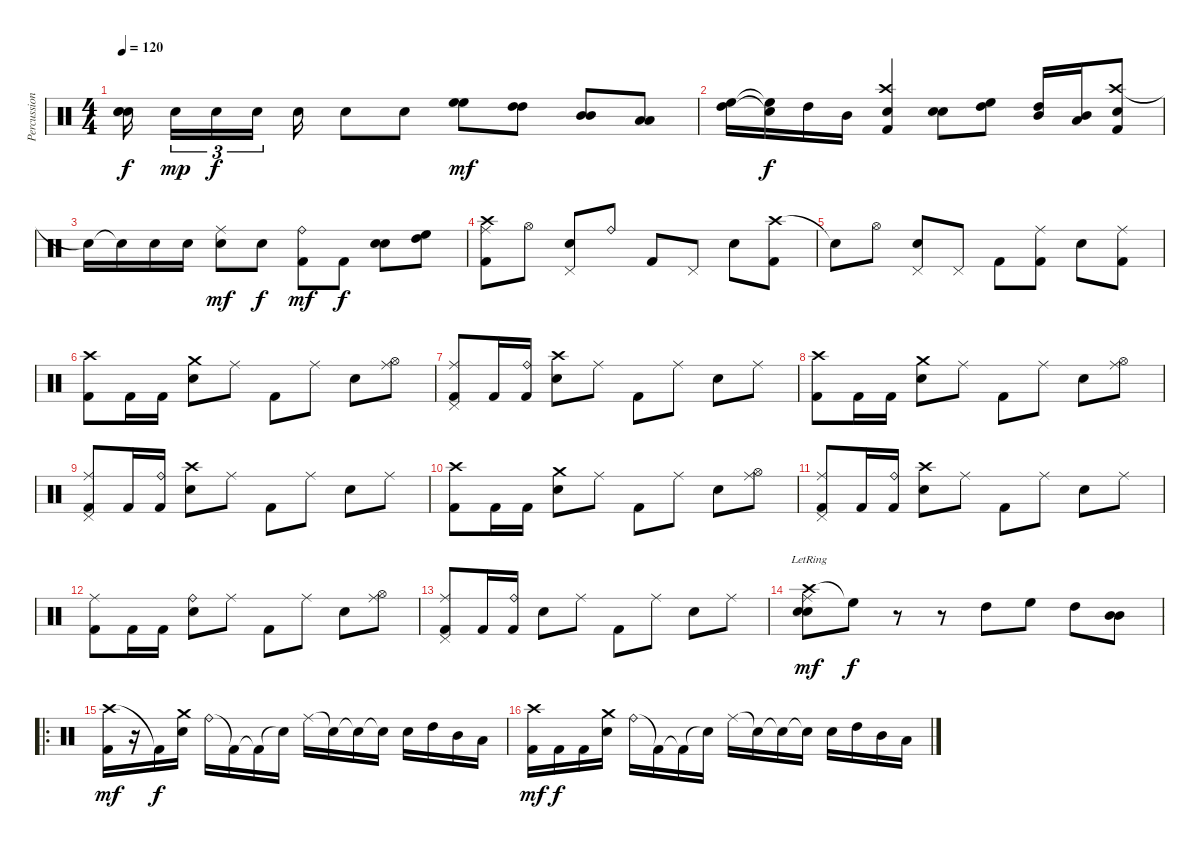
\track ("Percussioni" "Percussion") {instrument percussion}
\staff {score}
\articulation defaults
\ts (4 4)
\tempo 120
\clef neutral
\ks c
("Snare (hit)"{t} "Snare (hit)"{t} "Snare (hit)"{t}).16{dy f} "Electric Snare (hit)".16{tu (3 2) dy mp} "Electric Snare (hit)".16{tu (3 2) dy f} "Electric Snare (hit)".16{tu (3 2)} "Electric Snare (hit)".16 "Electric Snare (hit)".8 "Electric Snare (hit)".8 ("High Floor Tom (hit)" "High Floor Tom (hit)").8{dy mf} ("High Tom (hit)" "High Tom (hit)").8 ("Mid Tom (hit)" "Mid Tom (hit)").8 ("Low Tom (hit)" "Low Tom (hit)").8 |
("High Tom (hit)" "High Floor Tom (hit)").16{bd 240} ("Snare (hit)"{t} "High Floor Tom (hit)"{t}).16{dy f} "High Tom (hit)".16 "Mid Tom (hit)".16 ("Crash high (hit)" "Kick (hit) 2" "Electric Snare (hit)").4 ("Snare (hit) 2" "Electric Snare (hit)").8{bd 480} ("High Tom (hit)" "High Floor Tom (hit)").8{bd 480} ("Mid Tom (hit)" "High Tom (hit)").16{bd 120} ("Low Tom (hit)" "Mid Tom (hit)").16{bd 120} ("Crash high (hit)" "Electric Snare (hit)" "Kick (hit) 2").8 |
"Electric Snare (hit)"{t}.16 "Electric Snare (hit)"{t}.16 "Electric Snare (hit)".16 "Electric Snare (hit)".16 ("Ride (middle)" "Electric Snare (hit)").8{dy mf} "Electric Snare (hit)".8{dy f} ("Ride (bell)" "Kick (hit) 2").8{dy mf} "Kick (hit) 2".8{dy f} ("Electric Snare (hit)" "Electric Snare (hit)").8{bd 240} ("High Tom (hit)" "High Floor Tom (hit)").8{bd 240} |
("Crash high (hit)" "Ride (middle)" "Kick (hit) 2").8 "Hi-Hat (open)".8 ("Pedal Hi-Hat (hit)" "Electric Snare (hit)").8 "Ride (bell)".8 "Kick (hit) 2".8 "Pedal Hi-Hat (hit)".8 "Electric Snare (hit)".8 ("Crash high (hit)" "Kick (hit) 2").8 |
"Snare (hit)"{t}.8 "Hi-Hat (open)".8 ("Pedal Hi-Hat (hit)" "Electric Snare (hit)").8 "Pedal Hi-Hat (hit)".8 "Kick (hit) 2".8 ("Ride (middle)" "Kick (hit) 2").8 "Electric Snare (hit)".8 ("Ride (middle)" "Kick (hit) 2").8 |
("Crash high (hit)" "Kick (hit) 2").8 "Kick (hit) 2".16 "Kick (hit) 2".16 ("Crash medium (hit)" "Electric Snare (hit)").8 "Ride (middle)".8 "Kick (hit) 2".8 "Ride (middle)".8 "Electric Snare (hit)".8 ("Hi-Hat (open)" "Ride (middle)").8 |
("Pedal Hi-Hat (hit)" "Ride (middle)" "Kick (hit) 2").8 "Kick (hit) 2".16 ("Ride (bell)" "Kick (hit) 2").16 ("Crash high (hit)" "Electric Snare (hit)").8 "Ride (middle)".8 "Kick (hit) 2".8 "Ride (middle)".8 "Electric Snare (hit)".8 "Ride (middle)".8 |
("Crash high (hit)" "Kick (hit) 2").8 "Kick (hit) 2".16 "Kick (hit) 2".16 ("Crash medium (hit)" "Electric Snare (hit)").8 "Ride (middle)".8 "Kick (hit) 2".8 "Ride (middle)".8 "Electric Snare (hit)".8 ("Hi-Hat (open)" "Ride (middle)").8 |
("Pedal Hi-Hat (hit)" "Ride (middle)" "Kick (hit) 2").8 "Kick (hit) 2".16 ("Ride (bell)" "Kick (hit) 2").16 ("Crash high (hit)" "Electric Snare (hit)").8 "Ride (middle)".8 "Kick (hit) 2".8 "Ride (middle)".8 "Electric Snare (hit)".8 "Ride (middle)".8 |
("Crash high (hit)" "Kick (hit) 2").8 "Kick (hit) 2".16 "Kick (hit) 2".16 ("Crash medium (hit)" "Electric Snare (hit)").8 "Ride (middle)".8 "Kick (hit) 2".8 "Ride (middle)".8 "Electric Snare (hit)".8 ("Hi-Hat (open)" "Ride (middle)").8 |
("Pedal Hi-Hat (hit)" "Ride (middle)" "Kick (hit) 2").8 "Kick (hit) 2".16 ("Ride (bell)" "Kick (hit) 2").16 ("Crash high (hit)" "Electric Snare (hit)").8 "Ride (middle)".8 "Kick (hit) 2".8 "Ride (middle)".8 "Electric Snare (hit)".8 "Ride (middle)".8 |
("Ride (middle)" "Kick (hit) 2").8 "Kick (hit) 2".16 "Kick (hit) 2".16 ("Ride (bell)" "Electric Snare (hit)").8 "Ride (middle)".8 "Kick (hit) 2".8 "Ride (middle)".8 "Electric Snare (hit)".8 ("Hi-Hat (open)" "Ride (middle)").8 |
("Pedal Hi-Hat (hit)" "Ride (middle)" "Kick (hit) 2").8 "Kick (hit) 2".16 ("Ride (bell)" "Kick (hit) 2").16 "Electric Snare (hit)".8 "Ride (middle)".8 "Kick (hit) 2".8 "Ride (middle)".8 "Electric Snare (hit)".8 "Ride (middle)".8 |
("Crash high (hit)" "Ride (middle)"{lr} "Electric Snare (hit)" "Electric Snare (hit)").8{bd 120 dy mf} "High Floor Tom (hit)"{t}.8{bd 240 dy f} r.8 r.8 "High Tom (hit)".8 "High Floor Tom (hit)".8 "High Tom (hit)".8 ("Mid Tom (hit)" "Mid Tom (hit)").8 |
\ro
("Crash high (hit)" "Kick (hit) 2").16{dy mf} r.16 "Kick (hit) 2"{t}.16{dy f} ("Crash medium (hit)" "Electric Snare (hit)").16 "Ride (bell)".16 "Kick (hit) 2"{t}.16 "Kick (hit) 2"{t}.16 "Snare (hit)"{t}.16 "Ride (middle)".16 "Snare (hit)"{t}.16 "Snare (hit)"{t}.16 "Snare (hit)"{t}.16 "Electric Snare (hit)".16 "High Tom (hit)".16 "Mid Tom (hit)".16 "Low Tom (hit)".16 |
("Crash high (hit)" "Kick (hit) 2").16{dy mf} "Kick (hit) 2".16{dy f} "Kick (hit) 2".16 ("Crash medium (hit)" "Electric Snare (hit)").16 "Ride (bell)".16 "Kick (hit) 2"{t}.16 "Kick (hit) 2"{t}.16 "Snare (hit)"{t}.16 "Ride (middle)".16 "Snare (hit)"{t}.16 "Snare (hit)"{t}.16 "Snare (hit)"{t}.16 "Electric Snare (hit)".16 "High Tom (hit)".16 "Mid Tom (hit)".16 "Low Tom (hit)".16
